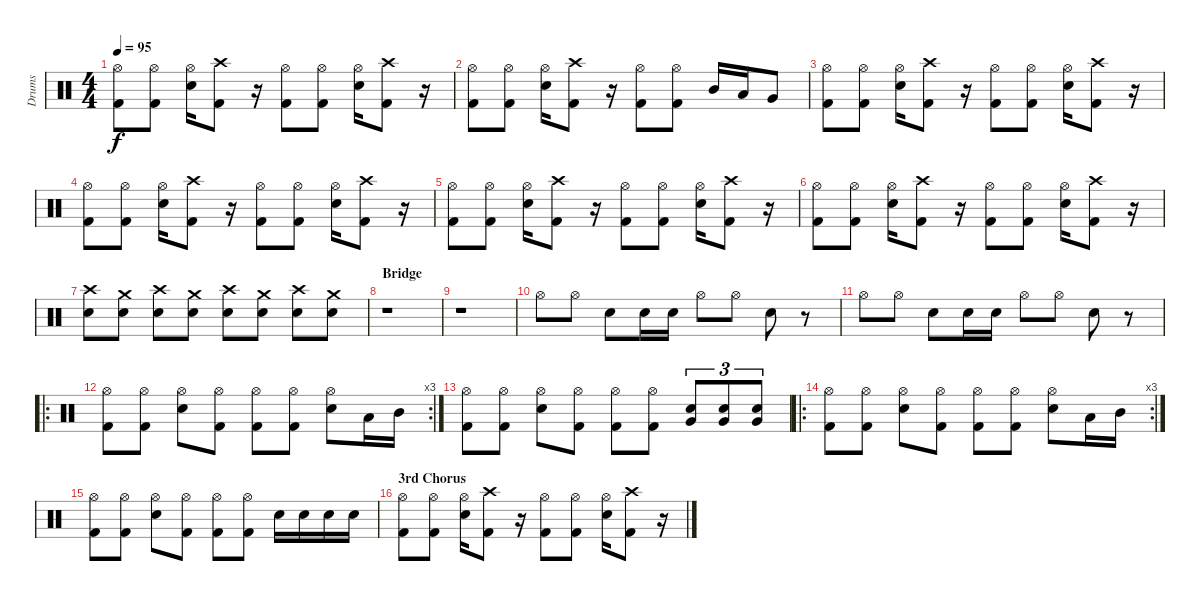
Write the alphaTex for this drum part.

\track ("Drums" "Drums") {instrument percussion}
\staff {score}
\articulation defaults
\ts (4 4)
\tempo 95
\clef neutral
\ks c
("Hi-Hat (open)" "Kick (hit) 2").8{dy f} ("Hi-Hat (open)" "Kick (hit) 2").8 ("Hi-Hat (open)" "Electric Snare (hit)").16 ("Crash high (hit)" "Kick (hit) 2").8 r.16 ("Hi-Hat (open)" "Kick (hit) 2").8 ("Hi-Hat (open)" "Kick (hit) 2").8 ("Hi-Hat (open)" "Electric Snare (hit)").16 ("Crash high (hit)" "Kick (hit) 2").8 r.16 |
("Hi-Hat (open)" "Kick (hit) 2").8 ("Hi-Hat (open)" "Kick (hit) 2").8 ("Hi-Hat (open)" "Electric Snare (hit)").16 ("Crash high (hit)" "Kick (hit) 2").8 r.16 ("Hi-Hat (open)" "Kick (hit) 2").8 ("Hi-Hat (open)" "Kick (hit) 2").8 "Mid Tom (hit)".16 "Low Tom (hit)".16 "Very Low Tom (hit)".8 |
("Hi-Hat (open)" "Kick (hit) 2").8 ("Hi-Hat (open)" "Kick (hit) 2").8 ("Hi-Hat (open)" "Electric Snare (hit)").16 ("Crash high (hit)" "Kick (hit) 2").8 r.16 ("Hi-Hat (open)" "Kick (hit) 2").8 ("Hi-Hat (open)" "Kick (hit) 2").8 ("Hi-Hat (open)" "Electric Snare (hit)").16 ("Crash high (hit)" "Kick (hit) 2").8 r.16 |
("Hi-Hat (open)" "Kick (hit) 2").8 ("Hi-Hat (open)" "Kick (hit) 2").8 ("Hi-Hat (open)" "Electric Snare (hit)").16 ("Crash high (hit)" "Kick (hit) 2").8 r.16 ("Hi-Hat (open)" "Kick (hit) 2").8 ("Hi-Hat (open)" "Kick (hit) 2").8 ("Hi-Hat (open)" "Electric Snare (hit)").16 ("Crash high (hit)" "Kick (hit) 2").8 r.16 |
("Hi-Hat (open)" "Kick (hit) 2").8 ("Hi-Hat (open)" "Kick (hit) 2").8 ("Hi-Hat (open)" "Electric Snare (hit)").16 ("Crash high (hit)" "Kick (hit) 2").8 r.16 ("Hi-Hat (open)" "Kick (hit) 2").8 ("Hi-Hat (open)" "Kick (hit) 2").8 ("Hi-Hat (open)" "Electric Snare (hit)").16 ("Crash high (hit)" "Kick (hit) 2").8 r.16 |
("Hi-Hat (open)" "Kick (hit) 2").8 ("Hi-Hat (open)" "Kick (hit) 2").8 ("Hi-Hat (open)" "Electric Snare (hit)").16 ("Crash high (hit)" "Kick (hit) 2").8 r.16 ("Hi-Hat (open)" "Kick (hit) 2").8 ("Hi-Hat (open)" "Kick (hit) 2").8 ("Hi-Hat (open)" "Electric Snare (hit)").16 ("Crash high (hit)" "Kick (hit) 2").8 r.16 |
("Crash high (hit)" "Electric Snare (hit)").8 ("Crash medium (hit)" "Electric Snare (hit)").8 ("Crash high (hit)" "Electric Snare (hit)").8 ("Crash medium (hit)" "Electric Snare (hit)").8 ("Crash high (hit)" "Electric Snare (hit)").8 ("Crash medium (hit)" "Electric Snare (hit)").8 ("Crash high (hit)" "Electric Snare (hit)").8 ("Crash medium (hit)" "Electric Snare (hit)").8 |
\section ("" "Bridge")
r.1 |
r.1 |
"Hi-Hat (open)".8 "Hi-Hat (open)".8 "Hand Clap (hit)".8 "Hand Clap (hit)".16 "Hand Clap (hit)".16 "Hi-Hat (open)".8 "Hi-Hat (open)".8 "Hand Clap (hit)".8 r.8 |
"Hi-Hat (open)".8 "Hi-Hat (open)".8 "Hand Clap (hit)".8 "Hand Clap (hit)".16 "Hand Clap (hit)".16 "Hi-Hat (open)".8 "Hi-Hat (open)".8 "Hand Clap (hit)".8 r.8 |
\ro
\rc 3
("Hi-Hat (open)" "Kick (hit) 2").8 ("Hi-Hat (open)" "Kick (hit) 2").8 ("Hi-Hat (open)" "Electric Snare (hit)").8 ("Hi-Hat (open)" "Kick (hit) 2").8 ("Hi-Hat (open)" "Kick (hit) 2").8 ("Hi-Hat (open)" "Kick (hit) 2").8 ("Hi-Hat (open)" "Electric Snare (hit)").8 "Low Tom (hit)".16 "Mid Tom (hit)".16 |
("Hi-Hat (open)" "Kick (hit) 2").8 ("Hi-Hat (open)" "Kick (hit) 2").8 ("Hi-Hat (open)" "Electric Snare (hit)").8 ("Hi-Hat (open)" "Kick (hit) 2").8 ("Hi-Hat (open)" "Kick (hit) 2").8 ("Hi-Hat (open)" "Kick (hit) 2").8 ("Very Low Tom (hit)" "Electric Snare (hit)").8{tu (3 2)} ("Very Low Tom (hit)" "Electric Snare (hit)").8{tu (3 2)} ("Very Low Tom (hit)" "Electric Snare (hit)").8{tu (3 2)} |
\ro
\rc 3
("Hi-Hat (open)" "Kick (hit) 2").8 ("Hi-Hat (open)" "Kick (hit) 2").8 ("Hi-Hat (open)" "Electric Snare (hit)").8 ("Hi-Hat (open)" "Kick (hit) 2").8 ("Hi-Hat (open)" "Kick (hit) 2").8 ("Hi-Hat (open)" "Kick (hit) 2").8 ("Hi-Hat (open)" "Electric Snare (hit)").8 "Low Tom (hit)".16 "Mid Tom (hit)".16 |
("Hi-Hat (open)" "Kick (hit) 2").8 ("Hi-Hat (open)" "Kick (hit) 2").8 ("Hi-Hat (open)" "Electric Snare (hit)").8 ("Hi-Hat (open)" "Kick (hit) 2").8 ("Hi-Hat (open)" "Kick (hit) 2").8 ("Hi-Hat (open)" "Kick (hit) 2").8 "Electric Snare (hit)".16 "Electric Snare (hit)".16 "Electric Snare (hit)".16 "Electric Snare (hit)".16 |
\section ("" "3rd Chorus")
("Hi-Hat (open)" "Kick (hit) 2").8 ("Hi-Hat (open)" "Kick (hit) 2").8 ("Hi-Hat (open)" "Electric Snare (hit)").16 ("Crash high (hit)" "Kick (hit) 2").8 r.16 ("Hi-Hat (open)" "Kick (hit) 2").8 ("Hi-Hat (open)" "Kick (hit) 2").8 ("Hi-Hat (open)" "Electric Snare (hit)").16 ("Crash high (hit)" "Kick (hit) 2").8 r.16
